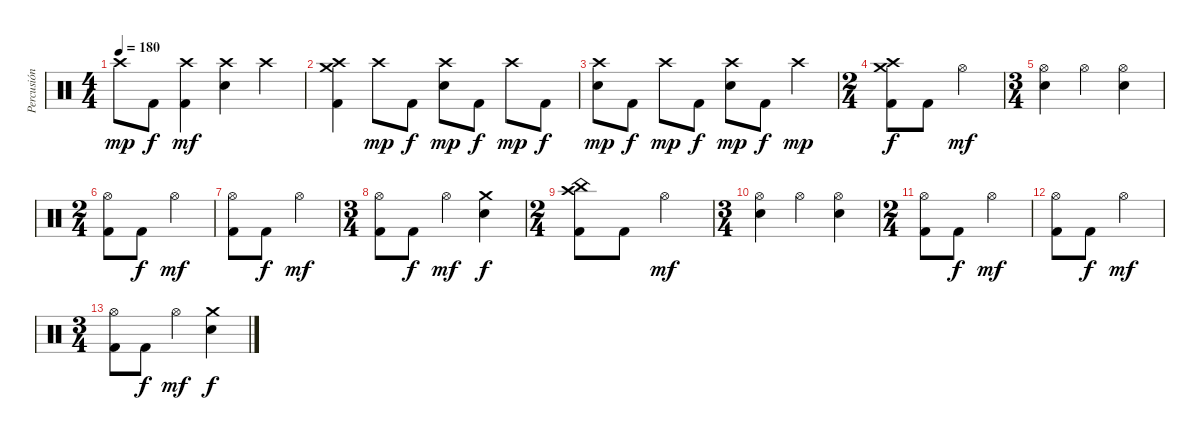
\track ("Percusión" "Percusión") {instrument percussion}
\staff {score}
\articulation defaults
\ts (4 4)
\tempo 180
\clef neutral
\ks c "Crash high (hit)".8{dy mp} "Kick (hit) 2".8{dy f}
("Crash high (hit)" "Kick (hit) 2").4{dy mf} ("Crash high (hit)" "Snare (hit) 2").4 "Crash high (hit)".4 |
("Crash medium (hit)" "Crash high (hit)" "Kick (hit) 2").4 "Crash high (hit)".8{dy mp} "Kick (hit) 2".8{dy f} ("Crash high (hit)" "Snare (hit) 2").8{dy mp} "Kick (hit) 2".8{dy f} "Crash high (hit)".8{dy mp} "Kick (hit) 2".8{dy f} |
("Crash high (hit)" "Snare (hit) 2").8{dy mp} "Kick (hit) 2".8{dy f} "Crash high (hit)".8{dy mp} "Kick (hit) 2".8{dy f} ("Crash high (hit)" "Snare (hit) 2").8{dy mp} "Kick (hit) 2".8{dy f} "Crash high (hit)".4{dy mp} |
\ts (2 4)
("Crash medium (hit)" "Crash high (hit)" "Kick (hit) 2").8{dy f} "Kick (hit) 2".8 "Hi-Hat (open)".4{dy mf} |
\ts (3 4)
("Hi-Hat (open)" "Snare (hit) 2").4 "Hi-Hat (open)".4 ("Hi-Hat (open)" "Snare (hit) 2").4 |
\ts (2 4)
("Hi-Hat (open)" "Kick (hit) 2").8 "Kick (hit) 2".8{dy f} "Hi-Hat (open)".4{dy mf} |
("Hi-Hat (open)" "Kick (hit) 2").8 "Kick (hit) 2".8{dy f} "Hi-Hat (open)".4{dy mf} |
\ts (3 4)
("Hi-Hat (open)" "Kick (hit) 2").8 "Kick (hit) 2".8{dy f} "Hi-Hat (open)".4{dy mf} ("Crash medium (hit)" "Snare (hit) 2").4{dy f} |
\ts (2 4)
("China (hit)" "Crash high (hit)" "Kick (hit) 2").8 "Kick (hit) 2".8 "Hi-Hat (open)".4{dy mf} |
\ts (3 4)
("Hi-Hat (open)" "Snare (hit) 2").4 "Hi-Hat (open)".4 ("Hi-Hat (open)" "Snare (hit) 2").4 |
\ts (2 4)
("Hi-Hat (open)" "Kick (hit) 2").8 "Kick (hit) 2".8{dy f} "Hi-Hat (open)".4{dy mf} |
("Hi-Hat (open)" "Kick (hit) 2").8 "Kick (hit) 2".8{dy f} "Hi-Hat (open)".4{dy mf} |
\ts (3 4)
("Hi-Hat (open)" "Kick (hit) 2").8 "Kick (hit) 2".8{dy f} "Hi-Hat (open)".4{dy mf} ("Crash medium (hit)" "Snare (hit) 2").4{dy f}
